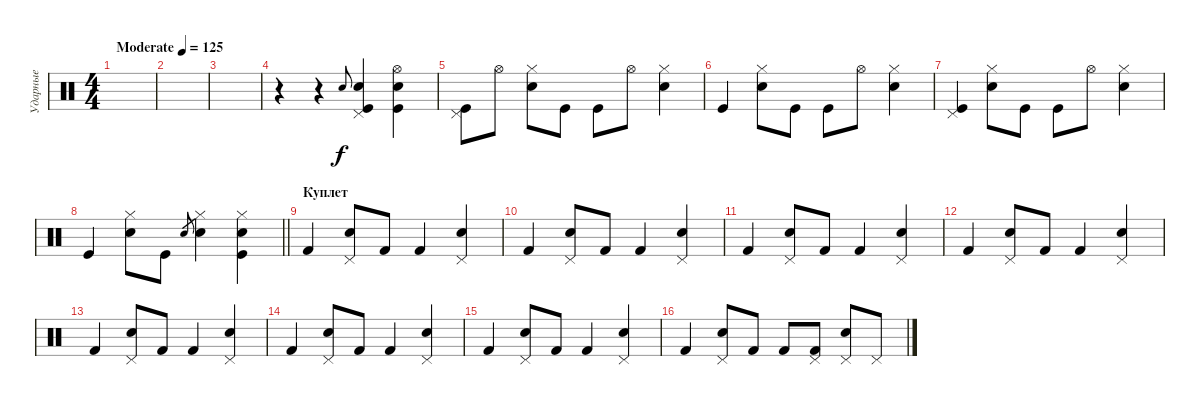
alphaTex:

\track ("Ударные" "Ударные") {instrument percussion}
\staff {score}
\articulation defaults
\ts (4 4)
\tempo (125 "Moderate")
\clef neutral
\ks c
|
|
|
r.4 r.4 "Snare (hit) 2".8{gr onbeat} ("Kick (hit)" "Snare (hit) 2" "Pedal Hi-Hat (hit)").4 ("Hi-Hat (open)" "Kick (hit)" "Snare (hit) 2").4 |
("Kick (hit)" "Pedal Hi-Hat (hit)").8 "Hi-Hat (open)".8 ("Hi-Hat (closed)" "Snare (hit) 2").8 "Kick (hit)".8 "Kick (hit)".8 "Hi-Hat (open)".8 ("Hi-Hat (closed)" "Snare (hit) 2").4 |
"Kick (hit)".4 ("Hi-Hat (closed)" "Snare (hit) 2").8 "Kick (hit)".8 "Kick (hit)".8 "Hi-Hat (open)".8 ("Hi-Hat (closed)" "Snare (hit) 2").4 |
("Kick (hit)" "Pedal Hi-Hat (hit)").4 ("Hi-Hat (closed)" "Snare (hit) 2").8 "Kick (hit)".8 "Kick (hit)".8 "Hi-Hat (open)".8 ("Hi-Hat (closed)" "Snare (hit) 2").4 |
\barLineRight lightlight "Kick (hit)".4
("Hi-Hat (closed)" "Snare (hit) 2").8 "Kick (hit)".8 "Snare (hit) 2".8{gr} ("Hi-Hat (closed)" "Snare (hit) 2").4 ("Hi-Hat (closed)" "Snare (hit) 2" "Kick (hit)").4 |
\section ("" "Куплет")
"Kick (hit) 2".4 ("Electric Snare (hit)" "Pedal Hi-Hat (hit)").8 "Kick (hit) 2".8 "Kick (hit) 2".4 ("Electric Snare (hit)" "Pedal Hi-Hat (hit)").4 |
"Kick (hit) 2".4 ("Electric Snare (hit)" "Pedal Hi-Hat (hit)").8 "Kick (hit) 2".8 "Kick (hit) 2".4 ("Electric Snare (hit)" "Pedal Hi-Hat (hit)").4 |
"Kick (hit) 2".4 ("Electric Snare (hit)" "Pedal Hi-Hat (hit)").8 "Kick (hit) 2".8 "Kick (hit) 2".4 ("Electric Snare (hit)" "Pedal Hi-Hat (hit)").4 |
"Kick (hit) 2".4 ("Electric Snare (hit)" "Pedal Hi-Hat (hit)").8 "Kick (hit) 2".8 "Kick (hit) 2".4 ("Electric Snare (hit)" "Pedal Hi-Hat (hit)").4 |
"Kick (hit) 2".4 ("Electric Snare (hit)" "Pedal Hi-Hat (hit)").8 "Kick (hit) 2".8 "Kick (hit) 2".4 ("Electric Snare (hit)" "Pedal Hi-Hat (hit)").4 |
"Kick (hit) 2".4 ("Electric Snare (hit)" "Pedal Hi-Hat (hit)").8 "Kick (hit) 2".8 "Kick (hit) 2".4 ("Electric Snare (hit)" "Pedal Hi-Hat (hit)").4 |
"Kick (hit) 2".4 ("Electric Snare (hit)" "Pedal Hi-Hat (hit)").8 "Kick (hit) 2".8 "Kick (hit) 2".4 ("Electric Snare (hit)" "Pedal Hi-Hat (hit)").4 |
"Kick (hit) 2".4 ("Electric Snare (hit)" "Pedal Hi-Hat (hit)").8 "Kick (hit) 2".8 "Kick (hit) 2".8 ("Pedal Hi-Hat (hit)" "Kick (hit) 2").8 ("Electric Snare (hit)" "Pedal Hi-Hat (hit)").8 "Pedal Hi-Hat (hit)".8
